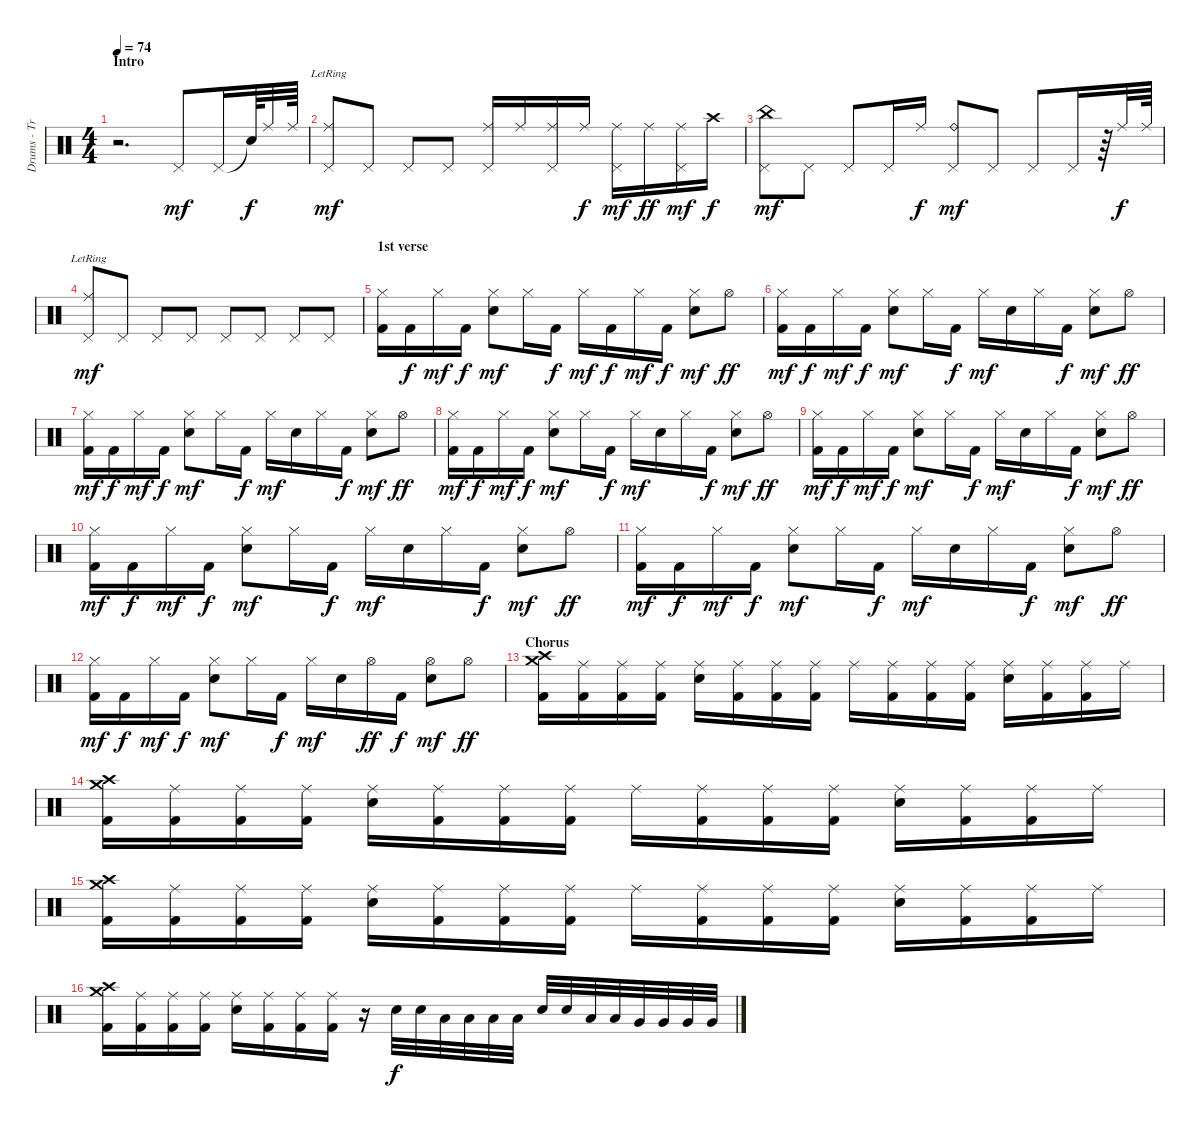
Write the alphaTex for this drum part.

\track ("Drums - Travis" "Drums - Tr") {instrument percussion}
\staff {score}
\articulation defaults
\ts (4 4)
\section ("" "Intro")
\tempo 74
\clef neutral
\ks c
r.2{d dy mf} "Pedal Hi-Hat (hit)".8 "Pedal Hi-Hat (hit)".16 "Snare (hit)"{t}.64{dy f} "Ride (middle)".32 "Ride (middle)".64 |
("Ride (middle)"{lr} "Pedal Hi-Hat (hit)").8{dy mf} "Pedal Hi-Hat (hit)".8 "Pedal Hi-Hat (hit)".8 "Pedal Hi-Hat (hit)".8 ("Ride (middle)" "Pedal Hi-Hat (hit)").16 "Ride (middle)".16 ("Ride (middle)" "Pedal Hi-Hat (hit)").16 "Ride (middle)".16{dy f} ("Ride (middle)" "Pedal Hi-Hat (hit)").16{dy mf} "Ride (middle)".16{dy ff} ("Ride (middle)" "Pedal Hi-Hat (hit)").16{dy mf} "Crash high (hit)".16{dy f} |
("China (hit)" "Pedal Hi-Hat (hit)").8{dy mf} "Pedal Hi-Hat (hit)".8 "Pedal Hi-Hat (hit)".8 "Pedal Hi-Hat (hit)".16 "Ride (middle)".16{dy f} ("Ride (bell)" "Pedal Hi-Hat (hit)").8{dy mf} "Pedal Hi-Hat (hit)".8 "Pedal Hi-Hat (hit)".8 "Pedal Hi-Hat (hit)".16 r.64 "Ride (middle)".32{dy f} "Ride (middle)".64 |
("Ride (middle)"{lr} "Pedal Hi-Hat (hit)").8{dy mf} "Pedal Hi-Hat (hit)".8 "Pedal Hi-Hat (hit)".8 "Pedal Hi-Hat (hit)".8 "Pedal Hi-Hat (hit)".8 "Pedal Hi-Hat (hit)".8 "Pedal Hi-Hat (hit)".8 "Pedal Hi-Hat (hit)".8 |
\section ("" "1st verse")
("Hi-Hat (closed)" "Kick (hit) 2").16 "Kick (hit) 2".16{dy f} "Hi-Hat (closed)".16{dy mf} "Kick (hit) 2".16{dy f} ("Hi-Hat (closed)" "Electric Snare (hit)").8{dy mf} "Hi-Hat (closed)".16 "Kick (hit) 2".16{dy f} "Hi-Hat (closed)".16{dy mf} "Kick (hit) 2".16{dy f} "Hi-Hat (closed)".16{dy mf} "Kick (hit) 2".16{dy f} ("Hi-Hat (closed)" "Electric Snare (hit)").8{dy mf} "Hi-Hat (open)".8{dy ff} |
("Hi-Hat (closed)" "Kick (hit) 2").16{dy mf} "Kick (hit) 2".16{dy f} "Hi-Hat (closed)".16{dy mf} "Kick (hit) 2".16{dy f} ("Hi-Hat (closed)" "Electric Snare (hit)").8{dy mf} "Hi-Hat (closed)".16 "Kick (hit) 2".16{dy f} "Hi-Hat (closed)".16{dy mf} "Electric Snare (hit)".16 "Hi-Hat (closed)".16 "Kick (hit) 2".16{dy f} ("Hi-Hat (closed)" "Electric Snare (hit)").8{dy mf} "Hi-Hat (open)".8{dy ff} |
("Hi-Hat (closed)" "Kick (hit) 2").16{dy mf} "Kick (hit) 2".16{dy f} "Hi-Hat (closed)".16{dy mf} "Kick (hit) 2".16{dy f} ("Hi-Hat (closed)" "Electric Snare (hit)").8{dy mf} "Hi-Hat (closed)".16 "Kick (hit) 2".16{dy f} "Hi-Hat (closed)".16{dy mf} "Electric Snare (hit)".16 "Hi-Hat (closed)".16 "Kick (hit) 2".16{dy f} ("Hi-Hat (closed)" "Electric Snare (hit)").8{dy mf} "Hi-Hat (open)".8{dy ff} |
("Hi-Hat (closed)" "Kick (hit) 2").16{dy mf} "Kick (hit) 2".16{dy f} "Hi-Hat (closed)".16{dy mf} "Kick (hit) 2".16{dy f} ("Hi-Hat (closed)" "Electric Snare (hit)").8{dy mf} "Hi-Hat (closed)".16 "Kick (hit) 2".16{dy f} "Hi-Hat (closed)".16{dy mf} "Electric Snare (hit)".16 "Hi-Hat (closed)".16 "Kick (hit) 2".16{dy f} ("Hi-Hat (closed)" "Electric Snare (hit)").8{dy mf} "Hi-Hat (open)".8{dy ff} |
("Hi-Hat (closed)" "Kick (hit) 2").16{dy mf} "Kick (hit) 2".16{dy f} "Hi-Hat (closed)".16{dy mf} "Kick (hit) 2".16{dy f} ("Hi-Hat (closed)" "Electric Snare (hit)").8{dy mf} "Hi-Hat (closed)".16 "Kick (hit) 2".16{dy f} "Hi-Hat (closed)".16{dy mf} "Electric Snare (hit)".16 "Hi-Hat (closed)".16 "Kick (hit) 2".16{dy f} ("Hi-Hat (closed)" "Electric Snare (hit)").8{dy mf} "Hi-Hat (open)".8{dy ff} |
("Hi-Hat (closed)" "Kick (hit) 2").16{dy mf} "Kick (hit) 2".16{dy f} "Hi-Hat (closed)".16{dy mf} "Kick (hit) 2".16{dy f} ("Hi-Hat (closed)" "Electric Snare (hit)").8{dy mf} "Hi-Hat (closed)".16 "Kick (hit) 2".16{dy f} "Hi-Hat (closed)".16{dy mf} "Electric Snare (hit)".16 "Hi-Hat (closed)".16 "Kick (hit) 2".16{dy f} ("Hi-Hat (closed)" "Electric Snare (hit)").8{dy mf} "Hi-Hat (open)".8{dy ff} |
("Hi-Hat (closed)" "Kick (hit) 2").16{dy mf} "Kick (hit) 2".16{dy f} "Hi-Hat (closed)".16{dy mf} "Kick (hit) 2".16{dy f} ("Hi-Hat (closed)" "Electric Snare (hit)").8{dy mf} "Hi-Hat (closed)".16 "Kick (hit) 2".16{dy f} "Hi-Hat (closed)".16{dy mf} "Electric Snare (hit)".16 "Hi-Hat (closed)".16 "Kick (hit) 2".16{dy f} ("Hi-Hat (closed)" "Electric Snare (hit)").8{dy mf} "Hi-Hat (open)".8{dy ff} |
("Hi-Hat (closed)" "Kick (hit) 2").16{dy mf} "Kick (hit) 2".16{dy f} "Hi-Hat (closed)".16{dy mf} "Kick (hit) 2".16{dy f} ("Hi-Hat (closed)" "Electric Snare (hit)").8{dy mf} "Hi-Hat (closed)".16 "Kick (hit) 2".16{dy f} "Hi-Hat (closed)".16{dy mf} "Electric Snare (hit)".16 "Hi-Hat (open)".16{dy ff} "Kick (hit) 2".16{dy f} ("Hi-Hat (open)" "Electric Snare (hit)").8{dy mf} "Hi-Hat (open)".8{dy ff} |
\section ("" "Chorus")
("Crash medium (hit)" "Crash high (hit)" "Kick (hit) 2").16 ("Ride (middle)" "Kick (hit) 2").16 ("Ride (middle)" "Kick (hit) 2").16 ("Ride (middle)" "Kick (hit) 2").16 ("Ride (middle)" "Electric Snare (hit)").16 ("Ride (middle)" "Kick (hit) 2").16 ("Ride (middle)" "Kick (hit) 2").16 ("Ride (middle)" "Kick (hit) 2").16 "Ride (middle)".16 ("Ride (middle)" "Kick (hit) 2").16 ("Ride (middle)" "Kick (hit) 2").16 ("Ride (middle)" "Kick (hit) 2").16 ("Ride (middle)" "Electric Snare (hit)").16 ("Ride (middle)" "Kick (hit) 2").16 ("Ride (middle)" "Kick (hit) 2").16 "Ride (middle)".16 |
("Crash medium (hit)" "Crash high (hit)" "Kick (hit) 2").16 ("Ride (middle)" "Kick (hit) 2").16 ("Ride (middle)" "Kick (hit) 2").16 ("Ride (middle)" "Kick (hit) 2").16 ("Ride (middle)" "Electric Snare (hit)").16 ("Ride (middle)" "Kick (hit) 2").16 ("Ride (middle)" "Kick (hit) 2").16 ("Ride (middle)" "Kick (hit) 2").16 "Ride (middle)".16 ("Ride (middle)" "Kick (hit) 2").16 ("Ride (middle)" "Kick (hit) 2").16 ("Ride (middle)" "Kick (hit) 2").16 ("Ride (middle)" "Electric Snare (hit)").16 ("Ride (middle)" "Kick (hit) 2").16 ("Ride (middle)" "Kick (hit) 2").16 "Ride (middle)".16 |
("Crash medium (hit)" "Crash high (hit)" "Kick (hit) 2").16 ("Ride (middle)" "Kick (hit) 2").16 ("Ride (middle)" "Kick (hit) 2").16 ("Ride (middle)" "Kick (hit) 2").16 ("Ride (middle)" "Electric Snare (hit)").16 ("Ride (middle)" "Kick (hit) 2").16 ("Ride (middle)" "Kick (hit) 2").16 ("Ride (middle)" "Kick (hit) 2").16 "Ride (middle)".16 ("Ride (middle)" "Kick (hit) 2").16 ("Ride (middle)" "Kick (hit) 2").16 ("Ride (middle)" "Kick (hit) 2").16 ("Ride (middle)" "Electric Snare (hit)").16 ("Ride (middle)" "Kick (hit) 2").16 ("Ride (middle)" "Kick (hit) 2").16 "Ride (middle)".16 |
("Crash medium (hit)" "Crash high (hit)" "Kick (hit) 2").16 ("Ride (middle)" "Kick (hit) 2").16 ("Ride (middle)" "Kick (hit) 2").16 ("Ride (middle)" "Kick (hit) 2").16 ("Ride (middle)" "Electric Snare (hit)").16 ("Ride (middle)" "Kick (hit) 2").16 ("Ride (middle)" "Kick (hit) 2").16 ("Ride (middle)" "Kick (hit) 2").16 r.16 "Electric Snare (hit)".32{dy f} "Electric Snare (hit)".32 "Low Tom (hit)".32 "Low Tom (hit)".32 "Low Tom (hit)".32 "Low Tom (hit)".32 "Electric Snare (hit)".32 "Electric Snare (hit)".32 "Low Tom (hit)".32 "Low Tom (hit)".32 "Very Low Tom (hit)".32 "Very Low Tom (hit)".32 "Very Low Tom (hit)".32 "Very Low Tom (hit)".32
